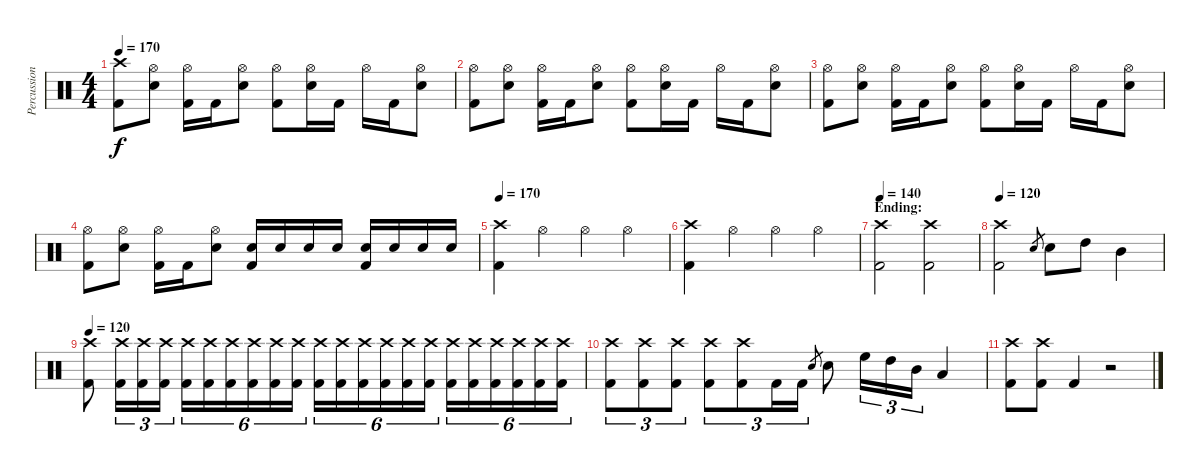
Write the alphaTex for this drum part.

\track ("Percussion" "Percussion") {instrument percussion}
\staff {score}
\articulation defaults
\ts (4 4)
\tempo 170
\clef neutral
\ks c
("Crash high (hit)" "Kick (hit) 2").8{dy f} ("Hi-Hat (open)" "Electric Snare (hit)").8 ("Hi-Hat (open)" "Kick (hit) 2").16 "Kick (hit) 2".16 ("Hi-Hat (open)" "Electric Snare (hit)").8 ("Hi-Hat (open)" "Kick (hit) 2").8 ("Hi-Hat (open)" "Electric Snare (hit)").16 "Kick (hit) 2".16 "Hi-Hat (open)".16 "Kick (hit) 2".16 ("Hi-Hat (open)" "Electric Snare (hit)").8 |
("Hi-Hat (open)" "Kick (hit) 2").8 ("Hi-Hat (open)" "Electric Snare (hit)").8 ("Hi-Hat (open)" "Kick (hit) 2").16 "Kick (hit) 2".16 ("Hi-Hat (open)" "Electric Snare (hit)").8 ("Hi-Hat (open)" "Kick (hit) 2").8 ("Hi-Hat (open)" "Electric Snare (hit)").16 "Kick (hit) 2".16 "Hi-Hat (open)".16 "Kick (hit) 2".16 ("Hi-Hat (open)" "Electric Snare (hit)").8 |
("Hi-Hat (open)" "Kick (hit) 2").8 ("Hi-Hat (open)" "Electric Snare (hit)").8 ("Hi-Hat (open)" "Kick (hit) 2").16 "Kick (hit) 2".16 ("Hi-Hat (open)" "Electric Snare (hit)").8 ("Hi-Hat (open)" "Kick (hit) 2").8 ("Hi-Hat (open)" "Electric Snare (hit)").16 "Kick (hit) 2".16 "Hi-Hat (open)".16 "Kick (hit) 2".16 ("Hi-Hat (open)" "Electric Snare (hit)").8 |
("Hi-Hat (open)" "Kick (hit) 2").8 ("Hi-Hat (open)" "Electric Snare (hit)").8 ("Hi-Hat (open)" "Kick (hit) 2").16 "Kick (hit) 2".16 ("Hi-Hat (open)" "Electric Snare (hit)").8 ("Electric Snare (hit)" "Kick (hit) 2").16 "Electric Snare (hit)".16 "Electric Snare (hit)".16 "Electric Snare (hit)".16 ("Electric Snare (hit)" "Kick (hit) 2").16 "Electric Snare (hit)".16 "Electric Snare (hit)".16 "Electric Snare (hit)".16 |
\tempo 170
("Crash high (hit)" "Kick (hit) 2").4 "Hi-Hat (open)".4 "Hi-Hat (open)".4 "Hi-Hat (open)".4 |
("Crash high (hit)" "Kick (hit) 2").4 "Hi-Hat (open)".4 "Hi-Hat (open)".4 "Hi-Hat (open)".4 |
\section ("" "Ending:")
\tempo 140
("Crash high (hit)" "Kick (hit) 2").2 ("Crash high (hit)" "Kick (hit) 2").2 |
\tempo 120
("Crash high (hit)" "Kick (hit) 2").2 "Electric Snare (hit)".8{gr} "Electric Snare (hit)".8 "High Tom (hit)".8 "Mid Tom (hit)".4 |
\tempo 120
("Crash high (hit)" "Kick (hit) 2").8 ("Crash high (hit)" "Kick (hit) 2").16{tu (3 2)} ("Crash high (hit)" "Kick (hit) 2").16{tu (3 2)} ("Crash high (hit)" "Kick (hit) 2").16{tu (3 2)} ("Crash high (hit)" "Kick (hit) 2").16{tu (6 4)} ("Crash high (hit)" "Kick (hit) 2").16{tu (6 4)} ("Crash high (hit)" "Kick (hit) 2").16{tu (6 4)} ("Crash high (hit)" "Kick (hit) 2").16{tu (6 4)} ("Crash high (hit)" "Kick (hit) 2").16{tu (6 4)} ("Crash high (hit)" "Kick (hit) 2").16{tu (6 4)} ("Crash high (hit)" "Kick (hit) 2").16{tu (6 4)} ("Crash high (hit)" "Kick (hit) 2").16{tu (6 4)} ("Crash high (hit)" "Kick (hit) 2").16{tu (6 4)} ("Crash high (hit)" "Kick (hit) 2").16{tu (6 4)} ("Crash high (hit)" "Kick (hit) 2").16{tu (6 4)} ("Crash high (hit)" "Kick (hit) 2").16{tu (6 4)} ("Crash high (hit)" "Kick (hit) 2").16{tu (6 4)} ("Crash high (hit)" "Kick (hit) 2").16{tu (6 4)} ("Crash high (hit)" "Kick (hit) 2").16{tu (6 4)} ("Crash high (hit)" "Kick (hit) 2").16{tu (6 4)} ("Crash high (hit)" "Kick (hit) 2").16{tu (6 4)} ("Crash high (hit)" "Kick (hit) 2").16{tu (6 4)} |
("Crash high (hit)" "Kick (hit) 2").8{tu (3 2)} ("Crash high (hit)" "Kick (hit) 2").8{tu (3 2)} ("Crash high (hit)" "Kick (hit) 2").8{tu (3 2)} ("Crash high (hit)" "Kick (hit) 2").8{tu (3 2)} ("Crash high (hit)" "Kick (hit) 2").8{tu (3 2)} "Kick (hit) 2".16{tu (3 2)} "Kick (hit) 2".16{tu (3 2)} "Electric Snare (hit)".8{gr} "Electric Snare (hit)".8 "High Floor Tom (hit)".16{tu (3 2)} "High Tom (hit)".16{tu (3 2)} "Mid Tom (hit)".16{tu (3 2)} "Low Tom (hit)".4 |
("Crash high (hit)" "Kick (hit) 2").8 ("Crash high (hit)" "Kick (hit) 2").8 "Kick (hit) 2".4 r.2
